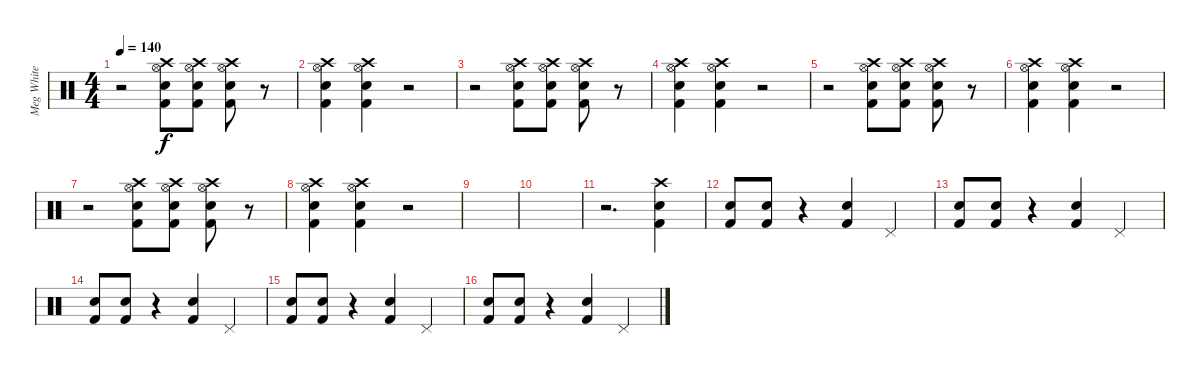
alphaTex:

\track ("Meg White" "Meg White") {instrument percussion}
\staff {score}
\articulation defaults
\ts (4 4)
\tempo 140
\clef neutral
\ks c
r.2{dy f} ("Crash high (hit)" "Electric Snare (hit)" "Hi-Hat (open)" "Kick (hit) 2").8 ("Crash high (hit)" "Electric Snare (hit)" "Hi-Hat (open)" "Kick (hit) 2").8 ("Crash high (hit)" "Electric Snare (hit)" "Hi-Hat (open)" "Kick (hit) 2").8 r.8 |
("Crash high (hit)" "Electric Snare (hit)" "Hi-Hat (open)" "Kick (hit) 2").4 ("Crash high (hit)" "Electric Snare (hit)" "Hi-Hat (open)" "Kick (hit) 2").4 r.2 |
r.2 ("Crash high (hit)" "Electric Snare (hit)" "Hi-Hat (open)" "Kick (hit) 2").8 ("Crash high (hit)" "Electric Snare (hit)" "Hi-Hat (open)" "Kick (hit) 2").8 ("Crash high (hit)" "Electric Snare (hit)" "Hi-Hat (open)" "Kick (hit) 2").8 r.8 |
("Crash high (hit)" "Electric Snare (hit)" "Hi-Hat (open)" "Kick (hit) 2").4 ("Crash high (hit)" "Electric Snare (hit)" "Hi-Hat (open)" "Kick (hit) 2").4 r.2 |
r.2 ("Crash high (hit)" "Electric Snare (hit)" "Hi-Hat (open)" "Kick (hit) 2").8 ("Crash high (hit)" "Electric Snare (hit)" "Hi-Hat (open)" "Kick (hit) 2").8 ("Crash high (hit)" "Electric Snare (hit)" "Hi-Hat (open)" "Kick (hit) 2").8 r.8 |
("Crash high (hit)" "Electric Snare (hit)" "Hi-Hat (open)" "Kick (hit) 2").4 ("Crash high (hit)" "Electric Snare (hit)" "Hi-Hat (open)" "Kick (hit) 2").4 r.2 |
r.2 ("Crash high (hit)" "Electric Snare (hit)" "Hi-Hat (open)" "Kick (hit) 2").8 ("Crash high (hit)" "Electric Snare (hit)" "Hi-Hat (open)" "Kick (hit) 2").8 ("Crash high (hit)" "Electric Snare (hit)" "Hi-Hat (open)" "Kick (hit) 2").8 r.8 |
("Crash high (hit)" "Electric Snare (hit)" "Hi-Hat (open)" "Kick (hit) 2").4 ("Crash high (hit)" "Electric Snare (hit)" "Hi-Hat (open)" "Kick (hit) 2").4 r.2 |
|
|
r.2{d} ("Crash high (hit)" "Electric Snare (hit)" "Kick (hit) 2").4 |
("Electric Snare (hit)" "Kick (hit) 2").8 ("Electric Snare (hit)" "Kick (hit) 2").8 r.4 ("Electric Snare (hit)" "Kick (hit) 2").4 "Pedal Hi-Hat (hit)".4 |
("Electric Snare (hit)" "Kick (hit) 2").8 ("Electric Snare (hit)" "Kick (hit) 2").8 r.4 ("Electric Snare (hit)" "Kick (hit) 2").4 "Pedal Hi-Hat (hit)".4 |
("Electric Snare (hit)" "Kick (hit) 2").8 ("Electric Snare (hit)" "Kick (hit) 2").8 r.4 ("Electric Snare (hit)" "Kick (hit) 2").4 "Pedal Hi-Hat (hit)".4 |
("Electric Snare (hit)" "Kick (hit) 2").8 ("Electric Snare (hit)" "Kick (hit) 2").8 r.4 ("Electric Snare (hit)" "Kick (hit) 2").4 "Pedal Hi-Hat (hit)".4 |
("Electric Snare (hit)" "Kick (hit) 2").8 ("Electric Snare (hit)" "Kick (hit) 2").8 r.4 ("Electric Snare (hit)" "Kick (hit) 2").4 "Pedal Hi-Hat (hit)".4
